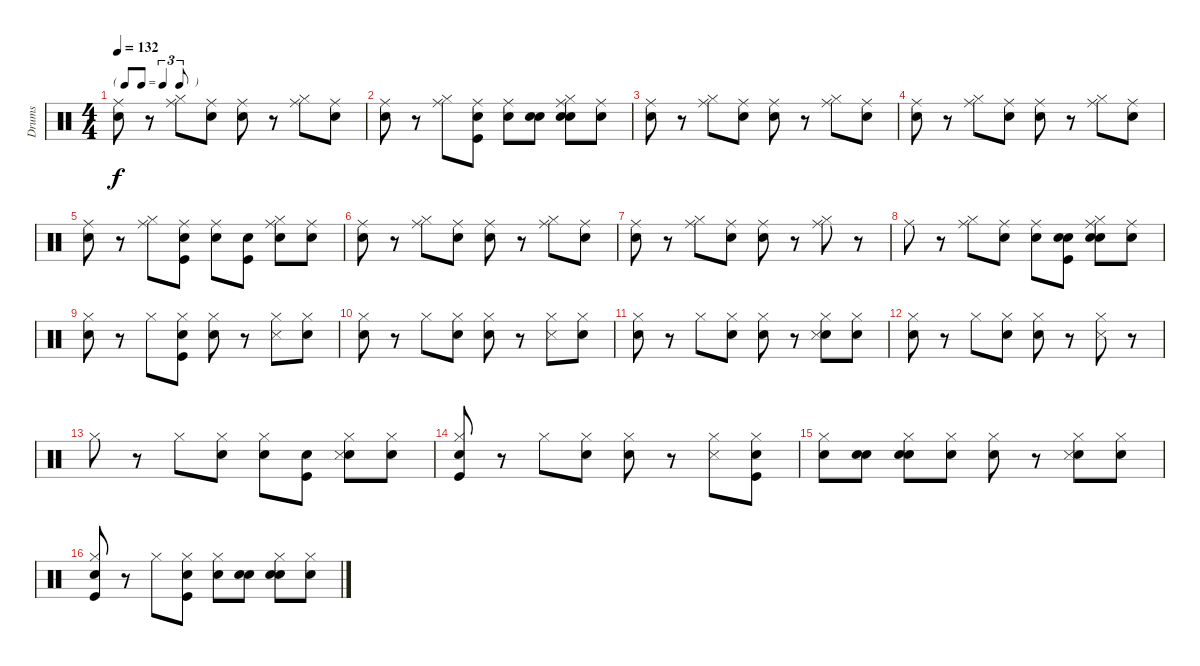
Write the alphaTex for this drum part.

\track ("Drums" "Drums") {instrument percussion}
\staff {score}
\articulation defaults
\ts (4 4)
\tf triplet8th
\tempo 132
\clef neutral
\ks c
("Snare (hit)" "Ride (middle)").8{dy f} r.8 ("Hi-Hat (closed)" "Ride (middle)").8 ("Snare (hit)" "Ride (middle)").8 ("Snare (hit)" "Ride (middle)").8 r.8 ("Hi-Hat (closed)" "Ride (middle)").8 ("Snare (hit)" "Ride (middle)").8 |
("Snare (hit)" "Ride (middle)").8 r.8 ("Hi-Hat (closed)" "Ride (middle)").8 ("Snare (hit)" "Kick (hit)" "Ride (middle)").8 ("Snare (hit)" "Ride (middle)").8 ("Snare (hit)" "Snare (hit) 2").8 ("Snare (hit)" "Snare (hit) 2" "Hi-Hat (closed)" "Ride (middle)").8 ("Snare (hit)" "Ride (middle)").8 |
("Snare (hit)" "Ride (middle)").8 r.8 ("Hi-Hat (closed)" "Ride (middle)").8 ("Snare (hit)" "Ride (middle)").8 ("Snare (hit)" "Ride (middle)").8 r.8 ("Hi-Hat (closed)" "Ride (middle)").8 ("Snare (hit)" "Ride (middle)").8 |
("Snare (hit)" "Ride (middle)").8 r.8 ("Hi-Hat (closed)" "Ride (middle)").8 ("Snare (hit)" "Ride (middle)").8 ("Snare (hit)" "Ride (middle)").8 r.8 ("Hi-Hat (closed)" "Ride (middle)").8 ("Snare (hit)" "Ride (middle)").8 |
("Snare (hit)" "Ride (middle)").8 r.8 ("Hi-Hat (closed)" "Ride (middle)").8 ("Snare (hit)" "Kick (hit)" "Ride (middle)").8 ("Snare (hit)" "Ride (middle)").8 ("Snare (hit)" "Kick (hit)").8 ("Snare (hit)" "Hi-Hat (closed)" "Ride (middle)").8 ("Snare (hit)" "Ride (middle)").8 |
("Snare (hit)" "Ride (middle)").8 r.8 ("Hi-Hat (closed)" "Ride (middle)").8 ("Snare (hit)" "Ride (middle)").8 ("Snare (hit)" "Ride (middle)").8 r.8 ("Hi-Hat (closed)" "Ride (middle)").8 ("Snare (hit)" "Ride (middle)").8 |
("Snare (hit)" "Ride (middle)").8 r.8 ("Hi-Hat (closed)" "Ride (middle)").8 ("Snare (hit)" "Ride (middle)").8 ("Snare (hit)" "Ride (middle)").8 r.8 ("Hi-Hat (closed)" "Ride (middle)").8 r.8 |
"Ride (middle)".8 r.8 ("Hi-Hat (closed)" "Ride (middle)").8 ("Snare (hit)" "Ride (middle)").8 ("Snare (hit)" "Ride (middle)").8 ("Snare (hit)" "Kick (hit)" "Snare (hit) 2").8 ("Snare (hit)" "Snare (hit) 2" "Hi-Hat (closed)" "Ride (middle)").8 ("Snare (hit)" "Ride (middle)").8 |
("Snare (hit)" "Hi-Hat (closed)").8 r.8 "Hi-Hat (closed)".8 ("Snare (hit)" "Kick (hit)" "Hi-Hat (closed)").8 ("Snare (hit)" "Hi-Hat (closed)").8 r.8 ("Hi-Hat (closed)" "Snare (side stick) 3").8 ("Snare (hit)" "Hi-Hat (closed)").8 |
("Snare (hit)" "Hi-Hat (closed)").8 r.8 "Hi-Hat (closed)".8 ("Snare (hit)" "Hi-Hat (closed)").8 ("Snare (hit)" "Hi-Hat (closed)").8 r.8 ("Hi-Hat (closed)" "Snare (side stick) 3").8 ("Snare (hit)" "Hi-Hat (closed)").8 |
("Snare (hit)" "Hi-Hat (closed)").8 r.8 "Hi-Hat (closed)".8 ("Snare (hit)" "Hi-Hat (closed)").8 ("Snare (hit)" "Hi-Hat (closed)").8 r.8 ("Snare (hit) 2" "Hi-Hat (closed)" "Snare (side stick) 3").8 ("Snare (hit)" "Hi-Hat (closed)").8 |
("Snare (hit)" "Hi-Hat (closed)").8 r.8 "Hi-Hat (closed)".8 ("Snare (hit)" "Hi-Hat (closed)").8 ("Snare (hit)" "Hi-Hat (closed)").8 r.8 ("Hi-Hat (closed)" "Snare (side stick) 3").8 r.8 |
"Hi-Hat (closed)".8 r.8 "Hi-Hat (closed)".8 ("Snare (hit)" "Hi-Hat (closed)").8 ("Snare (hit)" "Hi-Hat (closed)").8 ("Snare (hit)" "Kick (hit)").8 ("Snare (hit)" "Hi-Hat (closed)" "Snare (side stick) 3").8 ("Snare (hit)" "Hi-Hat (closed)").8 |
("Snare (hit)" "Kick (hit)" "Hi-Hat (closed)").8 r.8 "Hi-Hat (closed)".8 ("Snare (hit)" "Hi-Hat (closed)").8 ("Snare (hit)" "Hi-Hat (closed)").8 r.8 ("Hi-Hat (closed)" "Snare (side stick) 3").8 ("Snare (hit)" "Kick (hit)" "Hi-Hat (closed)").8 |
("Snare (hit)" "Hi-Hat (closed)").8 ("Snare (hit)" "Snare (hit) 2").8 ("Snare (hit)" "Snare (hit) 2" "Hi-Hat (closed)").8 ("Snare (hit)" "Hi-Hat (closed)").8 ("Snare (hit)" "Hi-Hat (closed)").8 r.8 ("Snare (hit) 2" "Hi-Hat (closed)" "Snare (side stick) 3").8 ("Snare (hit)" "Hi-Hat (closed)").8 |
("Snare (hit)" "Kick (hit)" "Hi-Hat (closed)").8 r.8 "Hi-Hat (closed)".8 ("Snare (hit)" "Kick (hit)" "Hi-Hat (closed)").8 ("Snare (hit)" "Hi-Hat (closed)").8 ("Snare (hit)" "Snare (hit) 2").8 ("Snare (hit)" "Snare (hit) 2" "Hi-Hat (closed)").8 ("Snare (hit)" "Hi-Hat (closed)").8
